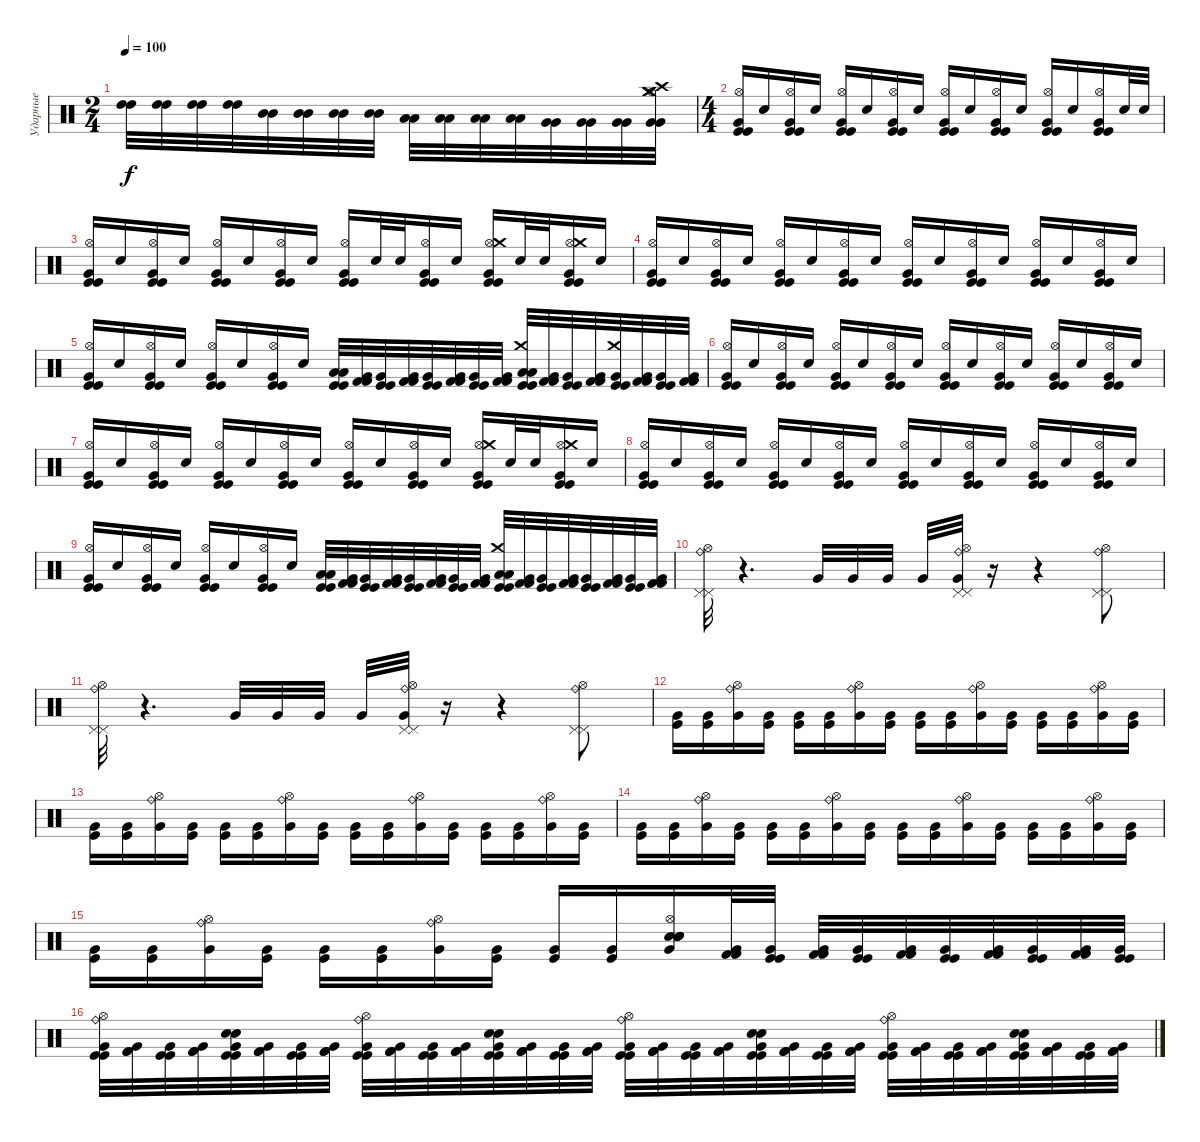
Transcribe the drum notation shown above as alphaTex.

\track ("Ударные" "Ударные") {instrument percussion}
\staff {score}
\articulation defaults
\ts (2 4)
\tempo 100
\clef neutral
\ks c
("High Tom (hit)" "High Tom (hit)").32{dy f} ("High Tom (hit)" "High Tom (hit)").32 ("High Tom (hit)" "High Tom (hit)").32 ("High Tom (hit)" "High Tom (hit)").32 ("Mid Tom (hit)" "Mid Tom (hit)").32 ("Mid Tom (hit)" "Mid Tom (hit)").32 ("Mid Tom (hit)" "Mid Tom (hit)").32 ("Mid Tom (hit)" "Mid Tom (hit)").32 ("Low Tom (hit)" "Low Tom (hit)").32 ("Low Tom (hit)" "Low Tom (hit)").32 ("Low Tom (hit)" "Low Tom (hit)").32 ("Low Tom (hit)" "Low Tom (hit)").32 ("Very Low Tom (hit)" "Very Low Tom (hit)").32 ("Very Low Tom (hit)" "Very Low Tom (hit)").32 ("Very Low Tom (hit)" "Very Low Tom (hit)").32 ("Crash high (hit)" "Hi-Hat (open)" "Very Low Tom (hit)" "Very Low Tom (hit)" "Crash medium (hit)" "Crash medium (hit)").32 |
\ts (4 4)
("Kick (hit)" "Very Low Tom (hit)" "Kick (hit)" "Hi-Hat (open)").16 "Electric Snare (hit)".16 ("Kick (hit)" "Very Low Tom (hit)" "Kick (hit)" "Hi-Hat (open)").16 "Electric Snare (hit)".16 ("Kick (hit)" "Very Low Tom (hit)" "Kick (hit)" "Hi-Hat (open)").16 "Electric Snare (hit)".16 ("Kick (hit)" "Very Low Tom (hit)" "Kick (hit)" "Hi-Hat (open)").16 "Electric Snare (hit)".16 ("Kick (hit)" "Very Low Tom (hit)" "Kick (hit)" "Hi-Hat (open)").16 "Electric Snare (hit)".16 ("Kick (hit)" "Very Low Tom (hit)" "Kick (hit)" "Hi-Hat (open)").16 "Electric Snare (hit)".16 ("Kick (hit)" "Very Low Tom (hit)" "Kick (hit)" "Hi-Hat (open)").16 "Electric Snare (hit)".16 ("Kick (hit)" "Very Low Tom (hit)" "Kick (hit)" "Hi-Hat (open)").16 "Electric Snare (hit)".32 "Electric Snare (hit)".32 |
("Kick (hit)" "Very Low Tom (hit)" "Kick (hit)" "Hi-Hat (open)").16 "Electric Snare (hit)".16 ("Kick (hit)" "Very Low Tom (hit)" "Kick (hit)" "Hi-Hat (open)").16 "Electric Snare (hit)".16 ("Kick (hit)" "Very Low Tom (hit)" "Kick (hit)" "Hi-Hat (open)").16 "Electric Snare (hit)".16 ("Kick (hit)" "Very Low Tom (hit)" "Kick (hit)" "Hi-Hat (open)").16 "Electric Snare (hit)".16 ("Kick (hit)" "Very Low Tom (hit)" "Kick (hit)" "Hi-Hat (open)").16 "Electric Snare (hit)".32 "Electric Snare (hit)".32 ("Kick (hit)" "Very Low Tom (hit)" "Kick (hit)" "Hi-Hat (open)").16 "Electric Snare (hit)".16 ("Kick (hit)" "Very Low Tom (hit)" "Kick (hit)" "Hi-Hat (open)" "Crash medium (hit)").16 "Electric Snare (hit)".32 "Electric Snare (hit)".32 ("Kick (hit)" "Very Low Tom (hit)" "Kick (hit)" "Hi-Hat (open)" "Crash medium (hit)").16 "Electric Snare (hit)".16 |
("Kick (hit)" "Very Low Tom (hit)" "Kick (hit)" "Hi-Hat (open)").16 "Electric Snare (hit)".16 ("Kick (hit)" "Very Low Tom (hit)" "Kick (hit)" "Hi-Hat (open)").16 "Electric Snare (hit)".16 ("Kick (hit)" "Very Low Tom (hit)" "Kick (hit)" "Hi-Hat (open)").16 "Electric Snare (hit)".16 ("Kick (hit)" "Very Low Tom (hit)" "Kick (hit)" "Hi-Hat (open)").16 "Electric Snare (hit)".16 ("Kick (hit)" "Very Low Tom (hit)" "Kick (hit)" "Hi-Hat (open)").16 "Electric Snare (hit)".16 ("Kick (hit)" "Very Low Tom (hit)" "Kick (hit)" "Hi-Hat (open)").16 "Electric Snare (hit)".16 ("Kick (hit)" "Very Low Tom (hit)" "Kick (hit)" "Hi-Hat (open)").16 "Electric Snare (hit)".16 ("Kick (hit)" "Very Low Tom (hit)" "Kick (hit)" "Hi-Hat (open)").16 "Electric Snare (hit)".16 |
("Kick (hit)" "Very Low Tom (hit)" "Kick (hit)" "Hi-Hat (open)").16 "Electric Snare (hit)".16 ("Kick (hit)" "Very Low Tom (hit)" "Kick (hit)" "Hi-Hat (open)").16 "Electric Snare (hit)".16 ("Kick (hit)" "Very Low Tom (hit)" "Kick (hit)" "Hi-Hat (open)").16 "Electric Snare (hit)".16 ("Kick (hit)" "Very Low Tom (hit)" "Kick (hit)" "Hi-Hat (open)").16 "Electric Snare (hit)".16 ("Low Tom (hit)" "Kick (hit)" "Kick (hit)" "Low Tom (hit)").32 ("Very Low Tom (hit)" "Kick (hit) 2" "Kick (hit) 2").32 ("Very Low Tom (hit)" "Kick (hit)" "Kick (hit)").32 ("Very Low Tom (hit)" "Kick (hit) 2" "Kick (hit) 2").32 ("Very Low Tom (hit)" "Kick (hit)" "Kick (hit)").32 ("Very Low Tom (hit)" "Kick (hit) 2" "Kick (hit) 2").32 ("Very Low Tom (hit)" "Kick (hit)" "Kick (hit)").32 ("Very Low Tom (hit)" "Kick (hit) 2" "Kick (hit) 2").32 ("Low Tom (hit)" "Kick (hit)" "Kick (hit)" "Low Tom (hit)" "Crash medium (hit)").32 ("Very Low Tom (hit)" "Kick (hit) 2" "Kick (hit) 2").32 ("Very Low Tom (hit)" "Kick (hit)" "Kick (hit)").32 ("Very Low Tom (hit)" "Kick (hit) 2" "Kick (hit) 2").32 ("Very Low Tom (hit)" "Kick (hit)" "Kick (hit)" "Crash medium (hit)").32 ("Very Low Tom (hit)" "Kick (hit) 2" "Kick (hit) 2").32 ("Very Low Tom (hit)" "Kick (hit)" "Kick (hit)").32 ("Very Low Tom (hit)" "Kick (hit) 2" "Kick (hit) 2").32 |
("Kick (hit)" "Very Low Tom (hit)" "Kick (hit)" "Hi-Hat (open)").16 "Electric Snare (hit)".16 ("Kick (hit)" "Very Low Tom (hit)" "Kick (hit)" "Hi-Hat (open)").16 "Electric Snare (hit)".16 ("Kick (hit)" "Very Low Tom (hit)" "Kick (hit)" "Hi-Hat (open)").16 "Electric Snare (hit)".16 ("Kick (hit)" "Very Low Tom (hit)" "Kick (hit)" "Hi-Hat (open)").16 "Electric Snare (hit)".16 ("Kick (hit)" "Very Low Tom (hit)" "Kick (hit)" "Hi-Hat (open)").16 "Electric Snare (hit)".16 ("Kick (hit)" "Very Low Tom (hit)" "Kick (hit)" "Hi-Hat (open)").16 "Electric Snare (hit)".16 ("Kick (hit)" "Very Low Tom (hit)" "Kick (hit)" "Hi-Hat (open)").16 "Electric Snare (hit)".16 ("Kick (hit)" "Very Low Tom (hit)" "Kick (hit)" "Hi-Hat (open)").16 "Electric Snare (hit)".16 |
("Kick (hit)" "Very Low Tom (hit)" "Kick (hit)" "Hi-Hat (open)").16 "Electric Snare (hit)".16 ("Kick (hit)" "Very Low Tom (hit)" "Kick (hit)" "Hi-Hat (open)").16 "Electric Snare (hit)".16 ("Kick (hit)" "Very Low Tom (hit)" "Kick (hit)" "Hi-Hat (open)").16 "Electric Snare (hit)".16 ("Kick (hit)" "Very Low Tom (hit)" "Kick (hit)" "Hi-Hat (open)").16 "Electric Snare (hit)".16 ("Kick (hit)" "Very Low Tom (hit)" "Kick (hit)" "Hi-Hat (open)").16 "Electric Snare (hit)".16 ("Kick (hit)" "Very Low Tom (hit)" "Kick (hit)" "Hi-Hat (open)").16 "Electric Snare (hit)".16 ("Kick (hit)" "Very Low Tom (hit)" "Kick (hit)" "Hi-Hat (open)" "Crash medium (hit)").16 "Electric Snare (hit)".32 "Electric Snare (hit)".32 ("Kick (hit)" "Very Low Tom (hit)" "Kick (hit)" "Hi-Hat (open)" "Crash medium (hit)").16 "Electric Snare (hit)".16 |
("Kick (hit)" "Very Low Tom (hit)" "Kick (hit)" "Hi-Hat (open)").16 "Electric Snare (hit)".16 ("Kick (hit)" "Very Low Tom (hit)" "Kick (hit)" "Hi-Hat (open)").16 "Electric Snare (hit)".16 ("Kick (hit)" "Very Low Tom (hit)" "Kick (hit)" "Hi-Hat (open)").16 "Electric Snare (hit)".16 ("Kick (hit)" "Very Low Tom (hit)" "Kick (hit)" "Hi-Hat (open)").16 "Electric Snare (hit)".16 ("Kick (hit)" "Very Low Tom (hit)" "Kick (hit)" "Hi-Hat (open)").16 "Electric Snare (hit)".16 ("Kick (hit)" "Very Low Tom (hit)" "Kick (hit)" "Hi-Hat (open)").16 "Electric Snare (hit)".16 ("Kick (hit)" "Very Low Tom (hit)" "Kick (hit)" "Hi-Hat (open)").16 "Electric Snare (hit)".16 ("Kick (hit)" "Very Low Tom (hit)" "Kick (hit)" "Hi-Hat (open)").16 "Electric Snare (hit)".16 |
("Kick (hit)" "Very Low Tom (hit)" "Kick (hit)" "Hi-Hat (open)").16 "Electric Snare (hit)".16 ("Kick (hit)" "Very Low Tom (hit)" "Kick (hit)" "Hi-Hat (open)").16 "Electric Snare (hit)".16 ("Kick (hit)" "Very Low Tom (hit)" "Kick (hit)" "Hi-Hat (open)").16 "Electric Snare (hit)".16 ("Kick (hit)" "Very Low Tom (hit)" "Kick (hit)" "Hi-Hat (open)").16 "Electric Snare (hit)".16 ("Low Tom (hit)" "Kick (hit)" "Kick (hit)" "Low Tom (hit)").32 ("Very Low Tom (hit)" "Kick (hit) 2" "Kick (hit) 2").32 ("Very Low Tom (hit)" "Kick (hit)" "Kick (hit)").32 ("Very Low Tom (hit)" "Kick (hit) 2" "Kick (hit) 2").32 ("Very Low Tom (hit)" "Kick (hit)" "Kick (hit)").32 ("Very Low Tom (hit)" "Kick (hit) 2" "Kick (hit) 2").32 ("Very Low Tom (hit)" "Kick (hit)" "Kick (hit)").32 ("Very Low Tom (hit)" "Kick (hit) 2" "Kick (hit) 2").32 ("Low Tom (hit)" "Kick (hit)" "Kick (hit)" "Low Tom (hit)" "Crash medium (hit)").32 ("Very Low Tom (hit)" "Kick (hit) 2" "Kick (hit) 2").32 ("Very Low Tom (hit)" "Kick (hit)" "Kick (hit)").32 ("Very Low Tom (hit)" "Kick (hit) 2" "Kick (hit) 2").32 ("Very Low Tom (hit)" "Kick (hit)" "Kick (hit)").32 ("Very Low Tom (hit)" "Kick (hit) 2" "Kick (hit) 2").32 ("Very Low Tom (hit)" "Kick (hit)" "Kick (hit)").32 ("Very Low Tom (hit)" "Kick (hit) 2" "Kick (hit) 2").32 |
("Ride (bell)" "Hi-Hat (open)" "Pedal Hi-Hat (hit)" "Pedal Hi-Hat (hit)").32 r.4{d} "Very Low Tom (hit)".32 "Very Low Tom (hit)".32 "Very Low Tom (hit)".32 "Very Low Tom (hit)".32 ("Ride (bell)" "Hi-Hat (open)" "Pedal Hi-Hat (hit)" "Pedal Hi-Hat (hit)" "Very Low Tom (hit)").32 r.16 r.4 ("Ride (bell)" "Hi-Hat (open)" "Pedal Hi-Hat (hit)" "Pedal Hi-Hat (hit)").8 |
("Ride (bell)" "Hi-Hat (open)" "Pedal Hi-Hat (hit)" "Pedal Hi-Hat (hit)").32 r.4{d} "Very Low Tom (hit)".32 "Very Low Tom (hit)".32 "Very Low Tom (hit)".32 "Very Low Tom (hit)".32 ("Ride (bell)" "Hi-Hat (open)" "Pedal Hi-Hat (hit)" "Pedal Hi-Hat (hit)" "Very Low Tom (hit)").32 r.16 r.4 ("Ride (bell)" "Hi-Hat (open)" "Pedal Hi-Hat (hit)" "Pedal Hi-Hat (hit)").8 |
("Kick (hit)" "Very Low Tom (hit)").16 ("Kick (hit)" "Very Low Tom (hit)").16 ("Ride (bell)" "Hi-Hat (open)" "Very Low Tom (hit)").16 ("Kick (hit)" "Very Low Tom (hit)").16 ("Kick (hit)" "Very Low Tom (hit)").16 ("Kick (hit)" "Very Low Tom (hit)").16 ("Ride (bell)" "Hi-Hat (open)" "Very Low Tom (hit)").16 ("Kick (hit)" "Very Low Tom (hit)").16 ("Kick (hit)" "Very Low Tom (hit)").16 ("Kick (hit)" "Very Low Tom (hit)").16 ("Ride (bell)" "Hi-Hat (open)" "Very Low Tom (hit)").16 ("Kick (hit)" "Very Low Tom (hit)").16 ("Kick (hit)" "Very Low Tom (hit)").16 ("Kick (hit)" "Very Low Tom (hit)").16 ("Ride (bell)" "Hi-Hat (open)" "Very Low Tom (hit)").16 ("Kick (hit)" "Very Low Tom (hit)").16 |
("Kick (hit)" "Very Low Tom (hit)").16 ("Kick (hit)" "Very Low Tom (hit)").16 ("Ride (bell)" "Hi-Hat (open)" "Very Low Tom (hit)").16 ("Kick (hit)" "Very Low Tom (hit)").16 ("Kick (hit)" "Very Low Tom (hit)").16 ("Kick (hit)" "Very Low Tom (hit)").16 ("Ride (bell)" "Hi-Hat (open)" "Very Low Tom (hit)").16 ("Kick (hit)" "Very Low Tom (hit)").16 ("Kick (hit)" "Very Low Tom (hit)").16 ("Kick (hit)" "Very Low Tom (hit)").16 ("Ride (bell)" "Hi-Hat (open)" "Very Low Tom (hit)").16 ("Kick (hit)" "Very Low Tom (hit)").16 ("Kick (hit)" "Very Low Tom (hit)").16 ("Kick (hit)" "Very Low Tom (hit)").16 ("Ride (bell)" "Hi-Hat (open)" "Very Low Tom (hit)").16 ("Kick (hit)" "Very Low Tom (hit)").16 |
("Kick (hit)" "Very Low Tom (hit)").16 ("Kick (hit)" "Very Low Tom (hit)").16 ("Ride (bell)" "Hi-Hat (open)" "Very Low Tom (hit)").16 ("Kick (hit)" "Very Low Tom (hit)").16 ("Kick (hit)" "Very Low Tom (hit)").16 ("Kick (hit)" "Very Low Tom (hit)").16 ("Ride (bell)" "Hi-Hat (open)" "Very Low Tom (hit)").16 ("Kick (hit)" "Very Low Tom (hit)").16 ("Kick (hit)" "Very Low Tom (hit)").16 ("Kick (hit)" "Very Low Tom (hit)").16 ("Ride (bell)" "Hi-Hat (open)" "Very Low Tom (hit)").16 ("Kick (hit)" "Very Low Tom (hit)").16 ("Kick (hit)" "Very Low Tom (hit)").16 ("Kick (hit)" "Very Low Tom (hit)").16 ("Ride (bell)" "Hi-Hat (open)" "Very Low Tom (hit)").16 ("Kick (hit)" "Very Low Tom (hit)").16 |
("Kick (hit)" "Very Low Tom (hit)").16 ("Kick (hit)" "Very Low Tom (hit)").16 ("Ride (bell)" "Hi-Hat (open)" "Very Low Tom (hit)").16 ("Kick (hit)" "Very Low Tom (hit)").16 ("Kick (hit)" "Very Low Tom (hit)").16 ("Kick (hit)" "Very Low Tom (hit)").16 ("Ride (bell)" "Hi-Hat (open)" "Very Low Tom (hit)").16 ("Kick (hit)" "Very Low Tom (hit)").16 ("Kick (hit)" "Very Low Tom (hit)").16 ("Kick (hit)" "Very Low Tom (hit)").16 ("Electric Snare (hit)" "Electric Snare (hit)" "Hi-Hat (open)" "Very Low Tom (hit)" "Electric Snare (hit)" "Electric Snare (hit)").16 ("Very Low Tom (hit)" "Kick (hit) 2" "Kick (hit) 2").32 ("Very Low Tom (hit)" "Kick (hit)" "Kick (hit)").32 ("Very Low Tom (hit)" "Kick (hit) 2" "Kick (hit) 2").32 ("Very Low Tom (hit)" "Kick (hit)" "Kick (hit)").32 ("Very Low Tom (hit)" "Kick (hit) 2" "Kick (hit) 2").32 ("Very Low Tom (hit)" "Kick (hit)" "Kick (hit)").32 ("Very Low Tom (hit)" "Kick (hit) 2" "Kick (hit) 2").32 ("Very Low Tom (hit)" "Kick (hit)" "Kick (hit)").32 ("Very Low Tom (hit)" "Kick (hit) 2" "Kick (hit) 2").32 ("Very Low Tom (hit)" "Kick (hit)" "Kick (hit)").32 |
("Ride (bell)" "Very Low Tom (hit)" "Kick (hit)" "Kick (hit)" "Hi-Hat (open)").32 ("Very Low Tom (hit)" "Kick (hit) 2" "Kick (hit) 2").32 ("Very Low Tom (hit)" "Kick (hit)" "Kick (hit)").32 ("Very Low Tom (hit)" "Kick (hit) 2" "Kick (hit) 2").32 ("Very Low Tom (hit)" "Kick (hit)" "Kick (hit)" "Electric Snare (hit)" "Electric Snare (hit)").32 ("Very Low Tom (hit)" "Kick (hit) 2" "Kick (hit) 2").32 ("Very Low Tom (hit)" "Kick (hit)" "Kick (hit)").32 ("Very Low Tom (hit)" "Kick (hit) 2" "Kick (hit) 2").32 ("Ride (bell)" "Very Low Tom (hit)" "Kick (hit)" "Kick (hit)" "Hi-Hat (open)").32 ("Very Low Tom (hit)" "Kick (hit) 2" "Kick (hit) 2").32 ("Very Low Tom (hit)" "Kick (hit)" "Kick (hit)").32 ("Very Low Tom (hit)" "Kick (hit) 2" "Kick (hit) 2").32 ("Very Low Tom (hit)" "Kick (hit)" "Kick (hit)" "Electric Snare (hit)" "Electric Snare (hit)").32 ("Very Low Tom (hit)" "Kick (hit) 2" "Kick (hit) 2").32 ("Very Low Tom (hit)" "Kick (hit)" "Kick (hit)").32 ("Very Low Tom (hit)" "Kick (hit) 2" "Kick (hit) 2").32 ("Ride (bell)" "Very Low Tom (hit)" "Kick (hit)" "Kick (hit)" "Hi-Hat (open)").32 ("Very Low Tom (hit)" "Kick (hit) 2" "Kick (hit) 2").32 ("Very Low Tom (hit)" "Kick (hit)" "Kick (hit)").32 ("Very Low Tom (hit)" "Kick (hit) 2" "Kick (hit) 2").32 ("Very Low Tom (hit)" "Kick (hit)" "Kick (hit)" "Electric Snare (hit)" "Electric Snare (hit)").32 ("Very Low Tom (hit)" "Kick (hit) 2" "Kick (hit) 2").32 ("Very Low Tom (hit)" "Kick (hit)" "Kick (hit)").32 ("Very Low Tom (hit)" "Kick (hit) 2" "Kick (hit) 2").32 ("Ride (bell)" "Very Low Tom (hit)" "Kick (hit)" "Kick (hit)" "Hi-Hat (open)").32 ("Very Low Tom (hit)" "Kick (hit) 2" "Kick (hit) 2").32 ("Very Low Tom (hit)" "Kick (hit)" "Kick (hit)").32 ("Very Low Tom (hit)" "Kick (hit) 2" "Kick (hit) 2").32 ("Very Low Tom (hit)" "Kick (hit)" "Kick (hit)" "Electric Snare (hit)" "Electric Snare (hit)").32 ("Very Low Tom (hit)" "Kick (hit) 2" "Kick (hit) 2").32 ("Very Low Tom (hit)" "Kick (hit)" "Kick (hit)").32 ("Very Low Tom (hit)" "Kick (hit) 2" "Kick (hit) 2").32
